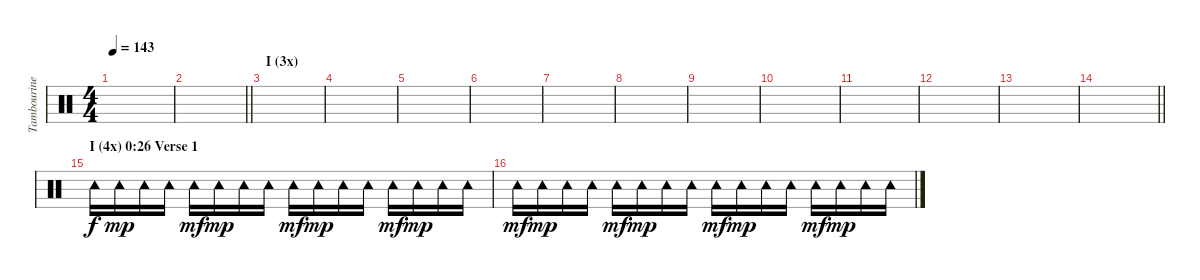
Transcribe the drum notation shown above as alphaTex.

\track ("Tambourine ( I Verse + IV Solo)" "Tambourine") {instrument percussion}
\staff {score}
\articulation defaults
\ts (4 4)
\tempo 143
\clef neutral
\ks c
|
\barLineRight lightlight
|
\section ("" "I (3x)")
|
|
|
|
|
|
|
|
|
|
|
\barLineRight lightlight
|
\section ("" "I (4x) 0:26 Verse 1")
"Tambourine (hit)".16 "Tambourine (hit)".16{dy mp} "Tambourine (hit)".16 "Tambourine (hit)".16 "Tambourine (hit)".16{dy mf} "Tambourine (hit)".16{dy mp} "Tambourine (hit)".16 "Tambourine (hit)".16 "Tambourine (hit)".16{dy mf} "Tambourine (hit)".16{dy mp} "Tambourine (hit)".16 "Tambourine (hit)".16 "Tambourine (hit)".16{dy mf} "Tambourine (hit)".16{dy mp} "Tambourine (hit)".16 "Tambourine (hit)".16 |
"Tambourine (hit)".16{dy mf} "Tambourine (hit)".16{dy mp} "Tambourine (hit)".16 "Tambourine (hit)".16 "Tambourine (hit)".16{dy mf} "Tambourine (hit)".16{dy mp} "Tambourine (hit)".16 "Tambourine (hit)".16 "Tambourine (hit)".16{dy mf} "Tambourine (hit)".16{dy mp} "Tambourine (hit)".16 "Tambourine (hit)".16 "Tambourine (hit)".16{dy mf} "Tambourine (hit)".16{dy mp} "Tambourine (hit)".16 "Tambourine (hit)".16
